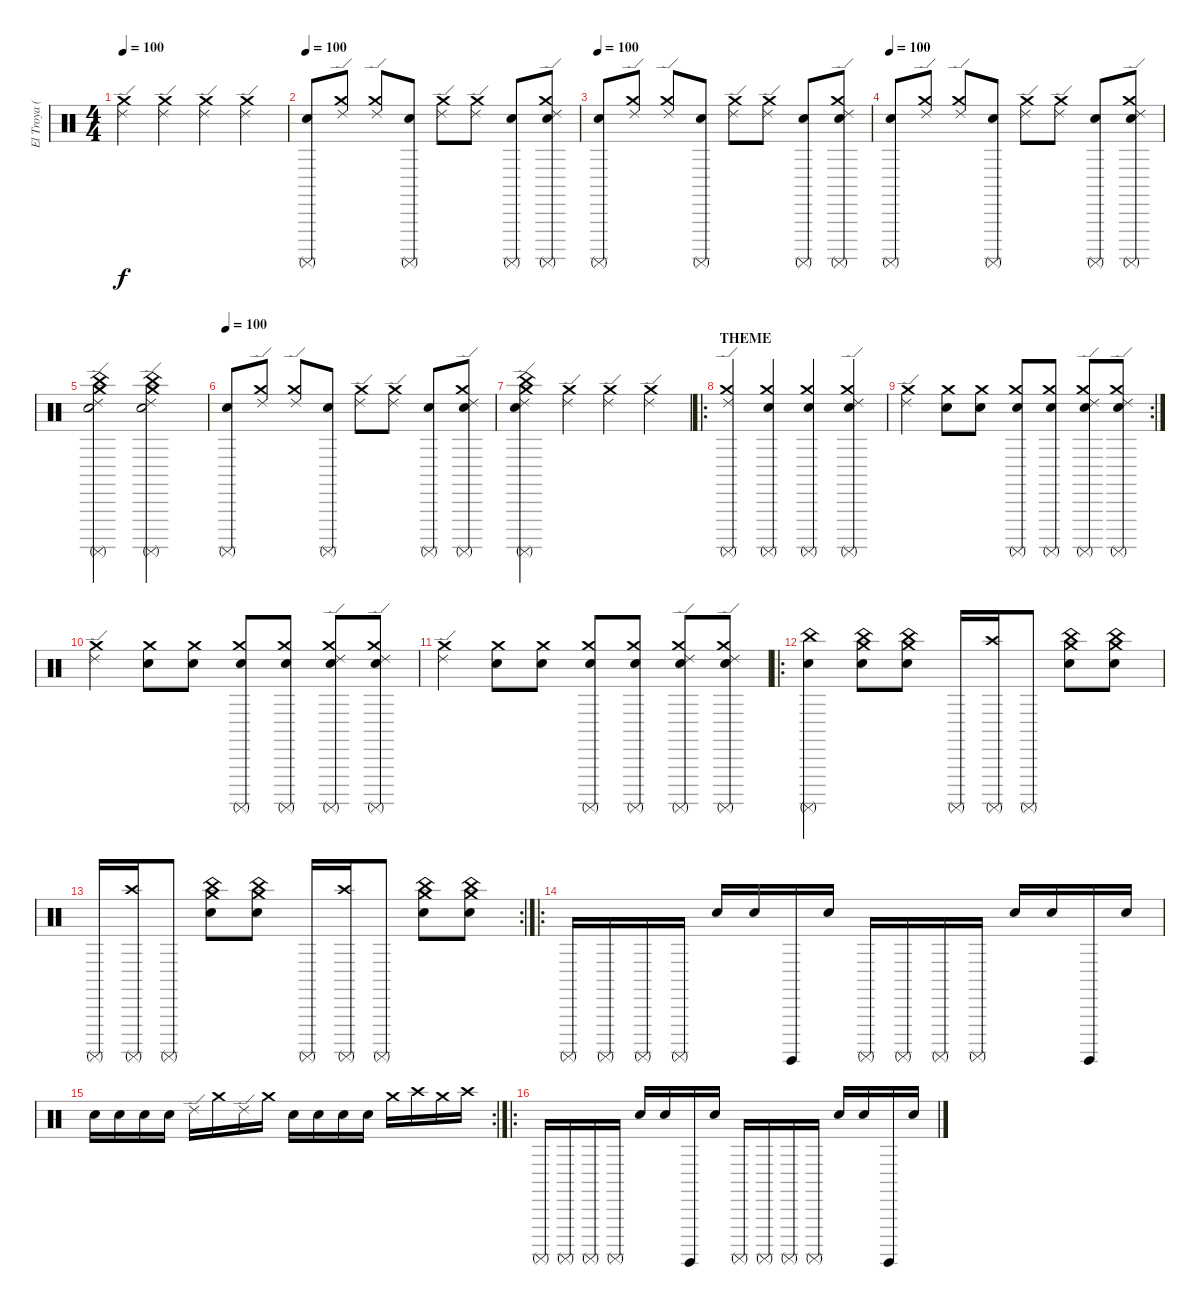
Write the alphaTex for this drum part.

\track ("El Troya (Premio)" "El Troya (") {instrument percussion}
\staff {score}
\articulation defaults
\ts (4 4)
\tempo 100
\clef neutral
\ks c
("Ride (edge) 2" "Crash medium (hit)").4{dy f} ("Ride (edge) 2" "Crash medium (hit)").4 ("Ride (edge) 2" "Crash medium (hit)").4 ("Ride (edge) 2" "Crash medium (hit)").4 |
\tempo 100
("Electric Snare (hit)" "Surdo (mute)").8 ("Ride (edge) 2" "Crash medium (hit)").8 ("Crash medium (hit)" "Ride (edge) 2").8 ("Surdo (mute)" "Electric Snare (hit)").8 ("Crash medium (hit)" "Ride (edge) 2").8 ("Ride (edge) 2" "Crash medium (hit)").8 ("Electric Snare (hit)" "Surdo (mute)").8 ("Ride (edge) 2" "Crash medium (hit)" "Electric Snare (hit)" "Surdo (mute)").8 |
\tempo 100
("Electric Snare (hit)" "Surdo (mute)").8 ("Ride (edge) 2" "Crash medium (hit)").8 ("Crash medium (hit)" "Ride (edge) 2").8 ("Surdo (mute)" "Electric Snare (hit)").8 ("Crash medium (hit)" "Ride (edge) 2").8 ("Ride (edge) 2" "Crash medium (hit)").8 ("Electric Snare (hit)" "Surdo (mute)").8 ("Ride (edge) 2" "Crash medium (hit)" "Electric Snare (hit)" "Surdo (mute)").8 |
\tempo 100
("Electric Snare (hit)" "Surdo (mute)").8 ("Ride (edge) 2" "Crash medium (hit)").8 ("Crash medium (hit)" "Ride (edge) 2").8 ("Surdo (mute)" "Electric Snare (hit)").8 ("Crash medium (hit)" "Ride (edge) 2").8 ("Ride (edge) 2" "Crash medium (hit)").8 ("Electric Snare (hit)" "Surdo (mute)").8 ("Ride (edge) 2" "Crash medium (hit)" "Electric Snare (hit)" "Surdo (mute)").8 |
("China (hit)" "Ride (edge) 2" "Crash medium (hit)" "Surdo (mute)" "Electric Snare (hit)").2 ("China (hit)" "Ride (edge) 2" "Crash medium (hit)" "Surdo (mute)" "Electric Snare (hit)").2 |
\tempo 100
("Electric Snare (hit)" "Surdo (mute)").8 ("Ride (edge) 2" "Crash medium (hit)").8 ("Crash medium (hit)" "Ride (edge) 2").8 ("Surdo (mute)" "Electric Snare (hit)").8 ("Crash medium (hit)" "Ride (edge) 2").8 ("Ride (edge) 2" "Crash medium (hit)").8 ("Electric Snare (hit)" "Surdo (mute)").8 ("Ride (edge) 2" "Crash medium (hit)" "Electric Snare (hit)" "Surdo (mute)").8 |
("China (hit)" "Ride (edge) 2" "Crash medium (hit)" "Surdo (mute)" "Electric Snare (hit)").4 ("Ride (edge) 2" "Crash medium (hit)").4 ("Ride (edge) 2" "Crash medium (hit)").4 ("Ride (edge) 2" "Crash medium (hit)").4 |
\ro
\section ("" "THEME")
("Surdo (mute)" "Ride (edge) 2" "Crash medium (hit)").4 ("Surdo (mute)" "Crash medium (hit)" "Electric Snare (hit)").4 ("Surdo (mute)" "Crash medium (hit)" "Electric Snare (hit)").4 ("Ride (edge) 2" "Crash medium (hit)" "Electric Snare (hit)" "Surdo (mute)").4 |
\rc 2
("Ride (edge) 2" "Crash medium (hit)").4 ("Crash medium (hit)" "Electric Snare (hit)").8 ("Crash medium (hit)" "Electric Snare (hit)").8 ("Surdo (mute)" "Crash medium (hit)" "Electric Snare (hit)").8 ("Surdo (mute)" "Crash medium (hit)" "Electric Snare (hit)").8 ("Ride (edge) 2" "Crash medium (hit)" "Electric Snare (hit)" "Surdo (mute)").8 ("Ride (edge) 2" "Crash medium (hit)" "Electric Snare (hit)" "Surdo (mute)").8 |
("Ride (edge) 2" "Crash medium (hit)").4 ("Crash medium (hit)" "Electric Snare (hit)").8 ("Crash medium (hit)" "Electric Snare (hit)").8 ("Surdo (mute)" "Crash medium (hit)" "Electric Snare (hit)").8 ("Surdo (mute)" "Crash medium (hit)" "Electric Snare (hit)").8 ("Ride (edge) 2" "Crash medium (hit)" "Electric Snare (hit)" "Surdo (mute)").8 ("Ride (edge) 2" "Crash medium (hit)" "Electric Snare (hit)" "Surdo (mute)").8 |
("Ride (edge) 2" "Crash medium (hit)").4 ("Crash medium (hit)" "Electric Snare (hit)").8 ("Crash medium (hit)" "Electric Snare (hit)").8 ("Surdo (mute)" "Crash medium (hit)" "Electric Snare (hit)").8 ("Surdo (mute)" "Crash medium (hit)" "Electric Snare (hit)").8 ("Ride (edge) 2" "Crash medium (hit)" "Electric Snare (hit)" "Surdo (mute)").8 ("Ride (edge) 2" "Crash medium (hit)" "Electric Snare (hit)" "Surdo (mute)").8 |
\ro
("China (hit)" "Electric Snare (hit)" "Surdo (mute)").4 ("China (hit)" "Crash medium (hit)" "Electric Snare (hit)").8 ("China (hit)" "Crash medium (hit)" "Electric Snare (hit)").8 "Surdo (mute)".16 ("Crash high (hit)" "Surdo (mute)").16 "Surdo (mute)".8 ("China (hit)" "Crash medium (hit)" "Electric Snare (hit)").8 ("China (hit)" "Crash medium (hit)" "Electric Snare (hit)").8 |
\rc 2 "Surdo (mute)".16
("Crash high (hit)" "Surdo (mute)").16 "Surdo (mute)".8 ("China (hit)" "Crash medium (hit)" "Electric Snare (hit)").8 ("China (hit)" "Crash medium (hit)" "Electric Snare (hit)").8 "Surdo (mute)".16 ("Crash high (hit)" "Surdo (mute)").16 "Surdo (mute)".8 ("China (hit)" "Crash medium (hit)" "Electric Snare (hit)").8 ("China (hit)" "Crash medium (hit)" "Electric Snare (hit)").8 |
\ro "Surdo (mute)".16 "Surdo (mute)".16 "Surdo (mute)".16 "Surdo (mute)".16 "Electric Snare (hit)".16 "Electric Snare (hit)".16 "Surdo (hit)".16 "Electric Snare (hit)".16 "Surdo (mute)".16 "Surdo (mute)".16 "Surdo (mute)".16 "Surdo (mute)".16 "Electric Snare (hit)".16 "Electric Snare (hit)".16 "Surdo (hit)".16 "Electric Snare (hit)".16
|
\rc 2 "Electric Snare (hit)".16 "Electric Snare (hit)".16 "Electric Snare (hit)".16 "Electric Snare (hit)".16 "Ride (edge) 2".16 "Crash medium (hit)".16 "Ride (edge) 2".16 "Crash medium (hit)".16 "Electric Snare (hit)".16 "Electric Snare (hit)".16 "Electric Snare (hit)".16 "Electric Snare (hit)".16 "Crash medium (hit)".16 "Crash high (hit)".16 "Crash medium (hit)".16 "Crash high (hit)".16
|
\ro "Surdo (mute)".16 "Surdo (mute)".16 "Surdo (mute)".16 "Surdo (mute)".16 "Electric Snare (hit)".16 "Electric Snare (hit)".16 "Surdo (hit)".16 "Electric Snare (hit)".16 "Surdo (mute)".16 "Surdo (mute)".16 "Surdo (mute)".16 "Surdo (mute)".16 "Electric Snare (hit)".16 "Electric Snare (hit)".16 "Surdo (hit)".16 "Electric Snare (hit)".16
